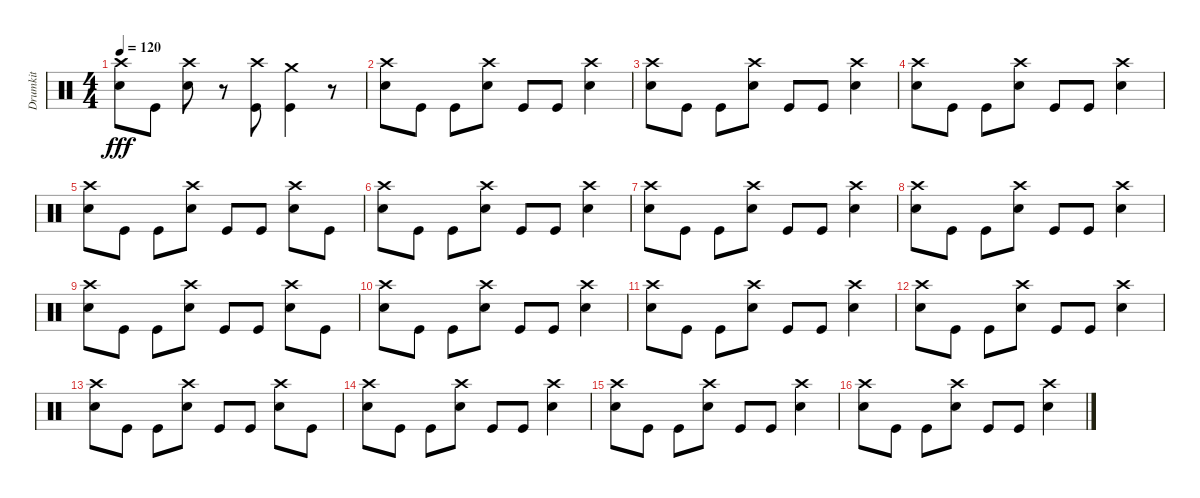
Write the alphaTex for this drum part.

\track ("Drumkit" "Drumkit") {instrument percussion}
\staff {score}
\articulation defaults
\ts (4 4)
\tempo 120
\clef neutral
\ks c
("Snare (hit) 2" "Crash high (hit)").8{dy fff} "Kick (hit)".8 ("Crash high (hit)" "Snare (hit) 2").8 r.8 ("Kick (hit)" "Crash high (hit)").8 ("Kick (hit)" "Crash medium (hit)").4 r.8 |
("Snare (hit) 2" "Crash high (hit)").8 "Kick (hit)".8 "Kick (hit)".8 ("Snare (hit) 2" "Crash high (hit)").8 "Kick (hit)".8 "Kick (hit)".8 ("Snare (hit) 2" "Crash high (hit)").4 |
("Snare (hit) 2" "Crash high (hit)").8 "Kick (hit)".8 "Kick (hit)".8 ("Snare (hit) 2" "Crash high (hit)").8 "Kick (hit)".8 "Kick (hit)".8 ("Snare (hit) 2" "Crash high (hit)").4 |
("Snare (hit) 2" "Crash high (hit)").8 "Kick (hit)".8 "Kick (hit)".8 ("Snare (hit) 2" "Crash high (hit)").8 "Kick (hit)".8 "Kick (hit)".8 ("Snare (hit) 2" "Crash high (hit)").4 |
("Snare (hit) 2" "Crash high (hit)").8 "Kick (hit)".8 "Kick (hit)".8 ("Snare (hit) 2" "Crash high (hit)").8 "Kick (hit)".8 "Kick (hit)".8 ("Snare (hit) 2" "Crash high (hit)").8 "Kick (hit)".8 |
("Snare (hit) 2" "Crash high (hit)").8 "Kick (hit)".8 "Kick (hit)".8 ("Snare (hit) 2" "Crash high (hit)").8 "Kick (hit)".8 "Kick (hit)".8 ("Snare (hit) 2" "Crash high (hit)").4 |
("Snare (hit) 2" "Crash high (hit)").8 "Kick (hit)".8 "Kick (hit)".8 ("Snare (hit) 2" "Crash high (hit)").8 "Kick (hit)".8 "Kick (hit)".8 ("Snare (hit) 2" "Crash high (hit)").4 |
("Snare (hit) 2" "Crash high (hit)").8 "Kick (hit)".8 "Kick (hit)".8 ("Snare (hit) 2" "Crash high (hit)").8 "Kick (hit)".8 "Kick (hit)".8 ("Snare (hit) 2" "Crash high (hit)").4 |
("Snare (hit) 2" "Crash high (hit)").8 "Kick (hit)".8 "Kick (hit)".8 ("Snare (hit) 2" "Crash high (hit)").8 "Kick (hit)".8 "Kick (hit)".8 ("Snare (hit) 2" "Crash high (hit)").8 "Kick (hit)".8 |
("Snare (hit) 2" "Crash high (hit)").8 "Kick (hit)".8 "Kick (hit)".8 ("Snare (hit) 2" "Crash high (hit)").8 "Kick (hit)".8 "Kick (hit)".8 ("Snare (hit) 2" "Crash high (hit)").4 |
("Snare (hit) 2" "Crash high (hit)").8 "Kick (hit)".8 "Kick (hit)".8 ("Snare (hit) 2" "Crash high (hit)").8 "Kick (hit)".8 "Kick (hit)".8 ("Snare (hit) 2" "Crash high (hit)").4 |
("Snare (hit) 2" "Crash high (hit)").8 "Kick (hit)".8 "Kick (hit)".8 ("Snare (hit) 2" "Crash high (hit)").8 "Kick (hit)".8 "Kick (hit)".8 ("Snare (hit) 2" "Crash high (hit)").4 |
("Snare (hit) 2" "Crash high (hit)").8 "Kick (hit)".8 "Kick (hit)".8 ("Snare (hit) 2" "Crash high (hit)").8 "Kick (hit)".8 "Kick (hit)".8 ("Snare (hit) 2" "Crash high (hit)").8 "Kick (hit)".8 |
("Snare (hit) 2" "Crash high (hit)").8 "Kick (hit)".8 "Kick (hit)".8 ("Snare (hit) 2" "Crash high (hit)").8 "Kick (hit)".8 "Kick (hit)".8 ("Snare (hit) 2" "Crash high (hit)").4 |
("Snare (hit) 2" "Crash high (hit)").8 "Kick (hit)".8 "Kick (hit)".8 ("Snare (hit) 2" "Crash high (hit)").8 "Kick (hit)".8 "Kick (hit)".8 ("Snare (hit) 2" "Crash high (hit)").4 |
("Snare (hit) 2" "Crash high (hit)").8 "Kick (hit)".8 "Kick (hit)".8 ("Snare (hit) 2" "Crash high (hit)").8 "Kick (hit)".8 "Kick (hit)".8 ("Snare (hit) 2" "Crash high (hit)").4
